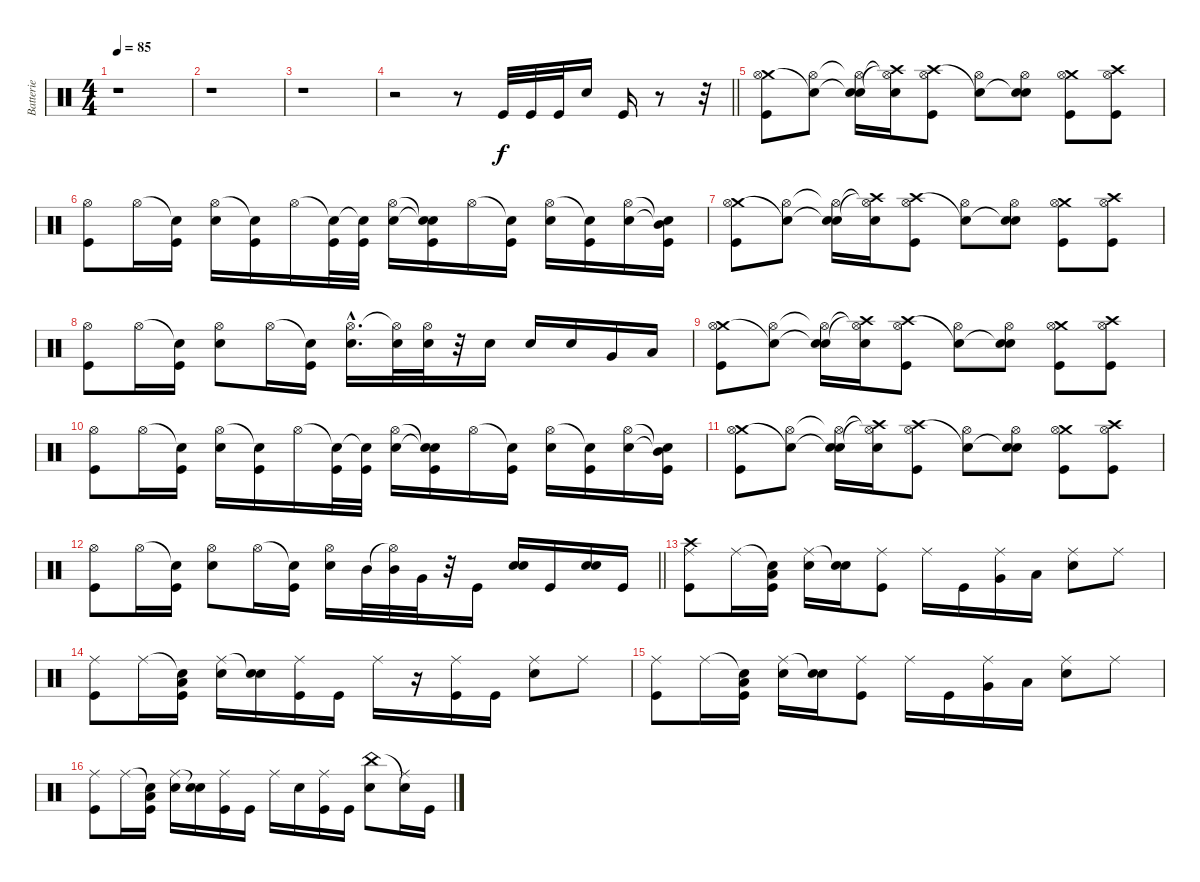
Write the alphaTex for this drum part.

\track ("Batterie" "Batterie") {instrument percussion}
\staff {score}
\articulation defaults
\ts (4 4)
\tempo 85
\clef neutral
\ks c
r.1{dy f} |
r.1 |
r.1 |
\barLineRight lightlight
r.2 r.8 "Kick (hit)".32 "Kick (hit)".32 "Kick (hit)".32 "Snare (hit) 2".16 "Kick (hit)".16 r.8 r.32 |
("Crash medium (hit)" "Hi-Hat (open)" "Kick (hit)").8 ("Snare (hit)"{t} "Hi-Hat (open)").8 ("Snare (hit)"{t} "Hi-Hat (open)"{t} "Snare (hit) 2").16 ("Crash high (hit)"{t} "Hi-Hat (open)"{t} "Snare (hit) 2").16 ("Crash high (hit)" "Hi-Hat (open)" "Kick (hit)").8 ("Snare (hit)"{t} "Hi-Hat (open)").8 ("Snare (hit)"{t} "Hi-Hat (open)" "Snare (hit) 2").8 ("Crash medium (hit)" "Hi-Hat (open)" "Kick (hit)").8 ("Crash high (hit)" "Hi-Hat (open)" "Kick (hit)").8 |
("Hi-Hat (open)" "Kick (hit)").8 "Hi-Hat (open)".16 ("Snare (hit)"{t} "Kick (hit)").16 ("Hi-Hat (open)" "Snare (hit) 2").16 ("Snare (hit)"{t} "Kick (hit)").16 "Hi-Hat (open)".16 ("Snare (hit)"{t} "Kick (hit)").32 ("Snare (hit)"{t} "Kick (hit)").32 ("Hi-Hat (open)" "Snare (hit) 2").16 ("Snare (hit)"{t} "Snare (hit)"{t} "Kick (hit)").16 "Hi-Hat (open)".16 ("Snare (hit)"{t} "Kick (hit)").16 ("Hi-Hat (open)" "Snare (hit) 2").16 ("Snare (hit)"{t} "Kick (hit)").16 ("Hi-Hat (open)" "Snare (hit) 2").16 ("Snare (hit)"{t} "Mid Tom (hit)"{t} "Kick (hit)").16 |
("Crash medium (hit)" "Hi-Hat (open)" "Kick (hit)").8 ("Snare (hit)"{t} "Hi-Hat (open)").8 ("Snare (hit)"{t} "Hi-Hat (open)"{t} "Snare (hit) 2").16 ("Crash high (hit)"{t} "Hi-Hat (open)"{t} "Snare (hit) 2").16 ("Crash high (hit)" "Hi-Hat (open)" "Kick (hit)").8 ("Snare (hit)"{t} "Hi-Hat (open)").8 ("Snare (hit)"{t} "Hi-Hat (open)" "Snare (hit) 2").8 ("Crash medium (hit)" "Hi-Hat (open)" "Kick (hit)").8 ("Crash high (hit)" "Hi-Hat (open)" "Kick (hit)").8 |
("Hi-Hat (open)" "Kick (hit)").8 "Hi-Hat (open)".16 ("Snare (hit)"{t} "Kick (hit)").16 ("Hi-Hat (open)" "Snare (hit) 2").8 "Hi-Hat (open)".16 ("Snare (hit)"{t} "Kick (hit)").16 ("Hi-Hat (open)"{hac} "Snare (hit) 2"{hac}).16{d} ("Hi-Hat (open)"{t} "Snare (hit) 2").32 ("Hi-Hat (open)" "Snare (hit) 2").32 r.32 "Snare (hit) 2".16 "Snare (hit) 2".16 "Snare (hit) 2".16 "Very Low Tom (hit)".16 "Low Floor Tom (hit)".16 |
("Crash medium (hit)" "Hi-Hat (open)" "Kick (hit)").8 ("Snare (hit)"{t} "Hi-Hat (open)").8 ("Snare (hit)"{t} "Hi-Hat (open)"{t} "Snare (hit) 2").16 ("Crash high (hit)"{t} "Hi-Hat (open)"{t} "Snare (hit) 2").16 ("Crash high (hit)" "Hi-Hat (open)" "Kick (hit)").8 ("Snare (hit)"{t} "Hi-Hat (open)").8 ("Snare (hit)"{t} "Hi-Hat (open)" "Snare (hit) 2").8 ("Crash medium (hit)" "Hi-Hat (open)" "Kick (hit)").8 ("Crash high (hit)" "Hi-Hat (open)" "Kick (hit)").8 |
("Hi-Hat (open)" "Kick (hit)").8 "Hi-Hat (open)".16 ("Snare (hit)"{t} "Kick (hit)").16 ("Hi-Hat (open)" "Snare (hit) 2").16 ("Snare (hit)"{t} "Kick (hit)").16 "Hi-Hat (open)".16 ("Snare (hit)"{t} "Kick (hit)").32 ("Snare (hit)"{t} "Kick (hit)").32 ("Hi-Hat (open)" "Snare (hit) 2").16 ("Snare (hit)"{t} "Snare (hit)"{t} "Kick (hit)").16 "Hi-Hat (open)".16 ("Snare (hit)"{t} "Kick (hit)").16 ("Hi-Hat (open)" "Snare (hit) 2").16 ("Snare (hit)"{t} "Kick (hit)").16 ("Hi-Hat (open)" "Snare (hit) 2").16 ("Snare (hit)"{t} "Mid Tom (hit)"{t} "Kick (hit)").16 |
("Crash medium (hit)" "Hi-Hat (open)" "Kick (hit)").8 ("Snare (hit)"{t} "Hi-Hat (open)").8 ("Snare (hit)"{t} "Hi-Hat (open)"{t} "Snare (hit) 2").16 ("Crash high (hit)"{t} "Hi-Hat (open)"{t} "Snare (hit) 2").16 ("Crash high (hit)" "Hi-Hat (open)" "Kick (hit)").8 ("Snare (hit)"{t} "Hi-Hat (open)").8 ("Snare (hit)"{t} "Hi-Hat (open)" "Snare (hit) 2").8 ("Crash medium (hit)" "Hi-Hat (open)" "Kick (hit)").8 ("Crash high (hit)" "Hi-Hat (open)" "Kick (hit)").8 |
\barLineRight lightlight
("Hi-Hat (open)" "Kick (hit)").8 "Hi-Hat (open)".16 ("Snare (hit)"{t} "Kick (hit)").16 ("Hi-Hat (open)" "Snare (hit) 2").8 "Hi-Hat (open)".16 ("Snare (hit)"{t} "Kick (hit)").16 ("Hi-Hat (open)" "Snare (hit) 2").16 "Mid Tom (hit)".32 ("Hi-Hat (open)"{t} "Mid Tom (hit)").32 "Very Low Tom (hit)".32 r.32 "Kick (hit)".16 ("Snare (hit) 2" "Snare (hit) 2").16 "Kick (hit)".16 ("Snare (hit) 2" "Snare (hit) 2").16 "Kick (hit)".16 |
("Crash high (hit)" "Ride (middle)" "Kick (hit)").8 "Ride (middle)".16 ("Snare (hit)"{t} "Low Tom (hit)" "Kick (hit)").16 ("Ride (middle)" "Snare (hit) 2").16 ("Snare (hit)"{t} "Snare (hit) 2").16 ("Ride (middle)" "Kick (hit)").8 "Ride (middle)".16 "Kick (hit)".16 ("Ride (middle)" "Very Low Tom (hit)").16 "Low Tom (hit)".16 ("Ride (middle)" "Snare (hit) 2").8 "Ride (middle)".8 |
("Ride (middle)" "Kick (hit)").8 "Ride (middle)".16 ("Snare (hit)"{t} "Low Tom (hit)" "Kick (hit)").16 ("Ride (middle)" "Snare (hit) 2").16 ("Snare (hit)"{t} "Snare (hit) 2").16 ("Ride (middle)" "Kick (hit)").16 "Kick (hit)".16 "Ride (middle)".16 r.16 ("Ride (middle)" "Kick (hit)").16 "Kick (hit)".16 ("Ride (middle)" "Snare (hit) 2").8 "Ride (middle)".8 |
("Ride (middle)" "Kick (hit)").8 "Ride (middle)".16 ("Snare (hit)"{t} "Low Tom (hit)" "Kick (hit)").16 ("Ride (middle)" "Snare (hit) 2").16 ("Snare (hit)"{t} "Snare (hit) 2").16 ("Ride (middle)" "Kick (hit)").8 "Ride (middle)".16 "Kick (hit)".16 ("Ride (middle)" "Very Low Tom (hit)").16 "Low Tom (hit)".16 ("Ride (middle)" "Snare (hit) 2").8 "Ride (middle)".8 |
("Ride (middle)" "Kick (hit)").8 "Ride (middle)".16 ("Snare (hit)"{t} "Low Tom (hit)" "Kick (hit)").16 ("Ride (middle)" "Snare (hit) 2").16 ("Snare (hit)"{t} "Snare (hit) 2").16 ("Ride (middle)" "Kick (hit)").16 "Kick (hit)".16 "Ride (middle)".16 "Snare (hit) 2".16 ("Ride (middle)" "Kick (hit)").16 "Kick (hit)".16 ("China (hit)" "Snare (hit) 2").8 ("Snare (hit)"{t} "Ride (middle)").16 "Kick (hit)".16
